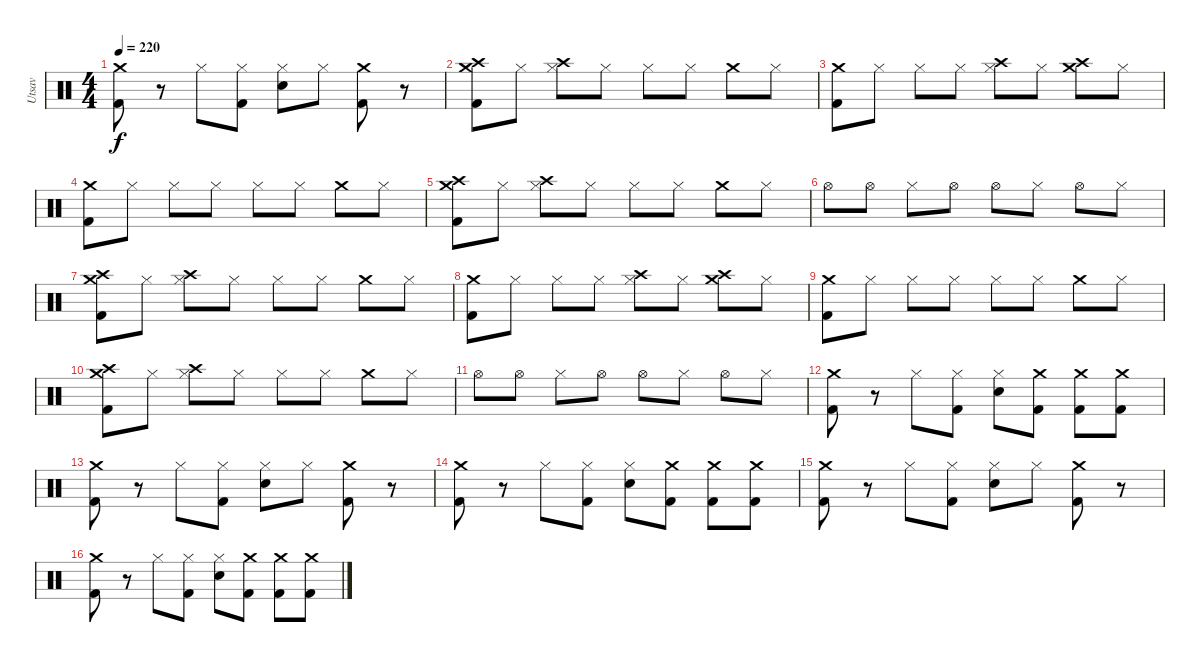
\track ("Utsav" "Utsav") {instrument percussion}
\staff {score}
\articulation defaults
\ts (4 4)
\tempo 220
\clef neutral
\ks c
("Crash medium (hit)" "Kick (hit) 2").8{dy f} r.8 "Hi-Hat (closed)".8 ("Hi-Hat (closed)" "Kick (hit) 2").8 ("Hi-Hat (closed)" "Snare (hit) 2").8 "Hi-Hat (closed)".8 ("Crash medium (hit)" "Kick (hit) 2").8 r.8 |
("Crash medium (hit)" "Crash high (hit)" "Kick (hit) 2").8 "Hi-Hat (closed)".8 ("Hi-Hat (closed)" "Crash high (hit)").8 "Hi-Hat (closed)".8 "Hi-Hat (closed)".8 "Hi-Hat (closed)".8 "Crash medium (hit)".8 "Hi-Hat (closed)".8 |
("Crash medium (hit)" "Kick (hit) 2").8 "Hi-Hat (closed)".8 "Hi-Hat (closed)".8 "Hi-Hat (closed)".8 ("Hi-Hat (closed)" "Crash high (hit)").8 "Hi-Hat (closed)".8 ("Crash medium (hit)" "Crash high (hit)").8 "Hi-Hat (closed)".8 |
("Crash medium (hit)" "Kick (hit) 2").8 "Hi-Hat (closed)".8 "Hi-Hat (closed)".8 "Hi-Hat (closed)".8 "Hi-Hat (closed)".8 "Hi-Hat (closed)".8 "Crash medium (hit)".8 "Hi-Hat (closed)".8 |
("Crash medium (hit)" "Crash high (hit)" "Kick (hit) 2").8 "Hi-Hat (closed)".8 ("Hi-Hat (closed)" "Crash high (hit)").8 "Hi-Hat (closed)".8 "Hi-Hat (closed)".8 "Hi-Hat (closed)".8 "Crash medium (hit)".8 "Hi-Hat (closed)".8 |
"Hi-Hat (open)".8 "Hi-Hat (open)".8 "Hi-Hat (closed)".8 "Hi-Hat (open)".8 "Hi-Hat (open)".8 "Hi-Hat (closed)".8 "Hi-Hat (open)".8 "Hi-Hat (closed)".8 |
("Crash medium (hit)" "Crash high (hit)" "Kick (hit) 2").8 "Hi-Hat (closed)".8 ("Hi-Hat (closed)" "Crash high (hit)").8 "Hi-Hat (closed)".8 "Hi-Hat (closed)".8 "Hi-Hat (closed)".8 "Crash medium (hit)".8 "Hi-Hat (closed)".8 |
("Crash medium (hit)" "Kick (hit) 2").8 "Hi-Hat (closed)".8 "Hi-Hat (closed)".8 "Hi-Hat (closed)".8 ("Hi-Hat (closed)" "Crash high (hit)").8 "Hi-Hat (closed)".8 ("Crash medium (hit)" "Crash high (hit)").8 "Hi-Hat (closed)".8 |
("Crash medium (hit)" "Kick (hit) 2").8 "Hi-Hat (closed)".8 "Hi-Hat (closed)".8 "Hi-Hat (closed)".8 "Hi-Hat (closed)".8 "Hi-Hat (closed)".8 "Crash medium (hit)".8 "Hi-Hat (closed)".8 |
("Crash medium (hit)" "Crash high (hit)" "Kick (hit) 2").8 "Hi-Hat (closed)".8 ("Hi-Hat (closed)" "Crash high (hit)").8 "Hi-Hat (closed)".8 "Hi-Hat (closed)".8 "Hi-Hat (closed)".8 "Crash medium (hit)".8 "Hi-Hat (closed)".8 |
"Hi-Hat (open)".8 "Hi-Hat (open)".8 "Hi-Hat (closed)".8 "Hi-Hat (open)".8 "Hi-Hat (open)".8 "Hi-Hat (closed)".8 "Hi-Hat (open)".8 "Hi-Hat (closed)".8 |
("Crash medium (hit)" "Kick (hit) 2").8 r.8 "Hi-Hat (closed)".8 ("Hi-Hat (closed)" "Kick (hit) 2").8 ("Hi-Hat (closed)" "Snare (hit) 2").8 ("Crash medium (hit)" "Kick (hit) 2").8 ("Crash medium (hit)" "Kick (hit) 2").8 ("Crash medium (hit)" "Kick (hit) 2").8 |
("Crash medium (hit)" "Kick (hit) 2").8 r.8 "Hi-Hat (closed)".8 ("Hi-Hat (closed)" "Kick (hit) 2").8 ("Hi-Hat (closed)" "Snare (hit) 2").8 "Hi-Hat (closed)".8 ("Crash medium (hit)" "Kick (hit) 2").8 r.8 |
("Crash medium (hit)" "Kick (hit) 2").8 r.8 "Hi-Hat (closed)".8 ("Hi-Hat (closed)" "Kick (hit) 2").8 ("Hi-Hat (closed)" "Snare (hit) 2").8 ("Crash medium (hit)" "Kick (hit) 2").8 ("Crash medium (hit)" "Kick (hit) 2").8 ("Crash medium (hit)" "Kick (hit) 2").8 |
("Crash medium (hit)" "Kick (hit) 2").8 r.8 "Hi-Hat (closed)".8 ("Hi-Hat (closed)" "Kick (hit) 2").8 ("Hi-Hat (closed)" "Snare (hit) 2").8 "Hi-Hat (closed)".8 ("Crash medium (hit)" "Kick (hit) 2").8 r.8 |
("Crash medium (hit)" "Kick (hit) 2").8 r.8 "Hi-Hat (closed)".8 ("Hi-Hat (closed)" "Kick (hit) 2").8 ("Hi-Hat (closed)" "Snare (hit) 2").8 ("Crash medium (hit)" "Kick (hit) 2").8 ("Crash medium (hit)" "Kick (hit) 2").8 ("Crash medium (hit)" "Kick (hit) 2").8
